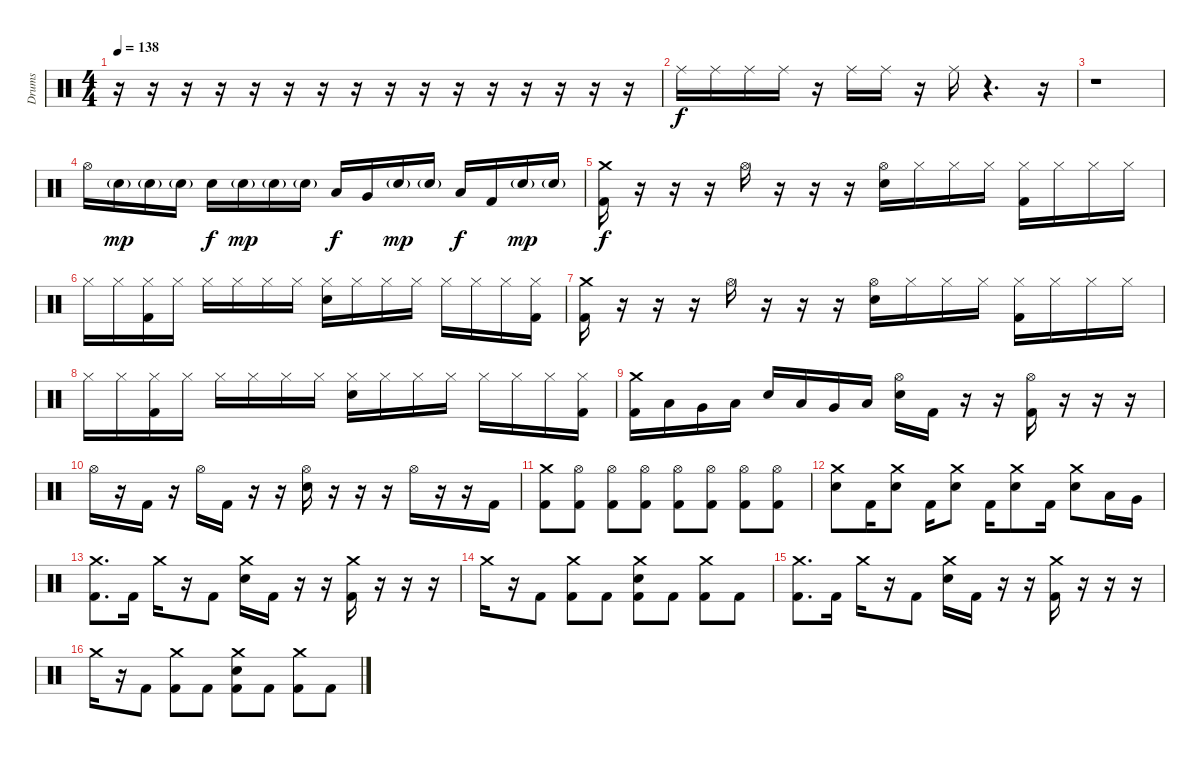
\track ("Drums" "Drums") {instrument percussion}
\staff {score}
\articulation defaults
\ts (4 4)
\tempo 138
\clef neutral
\ks c
r.16{dy f} r.16 r.16 r.16 r.16 r.16 r.16 r.16 r.16 r.16 r.16 r.16 r.16 r.16 r.16 r.16 |
"Ride (middle)".16 "Ride (middle)".16 "Ride (middle)".16 "Ride (middle)".16 r.16 "Ride (middle)".16 "Ride (middle)".16 r.16 "Ride (middle)".16 r.4{d} r.16 |
r.1 |
"Hi-Hat (open)".16 "Snare (hit) 2"{g}.16{dy mp} "Snare (hit) 2"{g}.16 "Snare (hit) 2"{g}.16 "Electric Snare (hit)".16{dy f} "Snare (hit) 2"{g}.16{dy mp} "Snare (hit) 2"{g}.16 "Snare (hit) 2"{g}.16 "Low Tom (hit)".16{dy f} "Very Low Tom (hit)".16 "Snare (hit) 2"{g}.16{dy mp} "Snare (hit) 2"{g}.16 "Low Floor Tom (hit)".16{dy f} "Kick (hit) 2".16 "Snare (hit) 2"{g}.16{dy mp} "Snare (hit) 2"{g}.16 |
("Crash medium (hit)" "Kick (hit) 2").16{dy f} r.16 r.16 r.16 "Hi-Hat (open)".16 r.16 r.16 r.16 ("Hi-Hat (open)" "Electric Snare (hit)").16 "Hi-Hat (closed)".16 "Hi-Hat (closed)".16 "Hi-Hat (closed)".16 ("Hi-Hat (closed)" "Kick (hit) 2").16 "Hi-Hat (closed)".16 "Hi-Hat (closed)".16 "Hi-Hat (closed)".16 |
"Hi-Hat (closed)".16 "Hi-Hat (closed)".16 ("Hi-Hat (closed)" "Kick (hit) 2").16 "Hi-Hat (closed)".16 "Hi-Hat (closed)".16 "Hi-Hat (closed)".16 "Hi-Hat (closed)".16 "Hi-Hat (closed)".16 ("Hi-Hat (closed)" "Electric Snare (hit)").16 "Hi-Hat (closed)".16 "Hi-Hat (closed)".16 "Hi-Hat (closed)".16 "Hi-Hat (closed)".16 "Hi-Hat (closed)".16 "Hi-Hat (closed)".16 ("Hi-Hat (closed)" "Kick (hit) 2").16 |
("Crash medium (hit)" "Kick (hit) 2").16 r.16 r.16 r.16 "Hi-Hat (open)".16 r.16 r.16 r.16 ("Hi-Hat (open)" "Electric Snare (hit)").16 "Hi-Hat (closed)".16 "Hi-Hat (closed)".16 "Hi-Hat (closed)".16 ("Hi-Hat (closed)" "Kick (hit) 2").16 "Hi-Hat (closed)".16 "Hi-Hat (closed)".16 "Hi-Hat (closed)".16 |
"Hi-Hat (closed)".16 "Hi-Hat (closed)".16 ("Hi-Hat (closed)" "Kick (hit) 2").16 "Hi-Hat (closed)".16 "Hi-Hat (closed)".16 "Hi-Hat (closed)".16 "Hi-Hat (closed)".16 "Hi-Hat (closed)".16 ("Hi-Hat (closed)" "Electric Snare (hit)").16 "Hi-Hat (closed)".16 "Hi-Hat (closed)".16 "Hi-Hat (closed)".16 "Hi-Hat (closed)".16 "Hi-Hat (closed)".16 "Hi-Hat (closed)".16 ("Hi-Hat (closed)" "Kick (hit) 2").16 |
("Crash medium (hit)" "Kick (hit) 2").16 "Low Tom (hit)".16 "Very Low Tom (hit)".16 "Low Floor Tom (hit)".16 "Electric Snare (hit)".16 "Low Tom (hit)".16 "Very Low Tom (hit)".16 "Low Floor Tom (hit)".16 ("Hi-Hat (open)" "Electric Snare (hit)").16 "Kick (hit) 2".16 r.16 r.16 ("Hi-Hat (open)" "Kick (hit) 2").16 r.16 r.16 r.16 |
"Hi-Hat (open)".16 r.16 "Kick (hit) 2".16 r.16 "Hi-Hat (open)".16 "Kick (hit) 2".16 r.16 r.16 ("Hi-Hat (open)" "Electric Snare (hit)").16 r.16 r.16 r.16 "Hi-Hat (open)".16 r.16 r.16 "Kick (hit) 2".16 |
("Crash medium (hit)" "Kick (hit) 2").8 ("Hi-Hat (open)" "Kick (hit) 2").8 ("Hi-Hat (open)" "Kick (hit) 2").8 ("Hi-Hat (open)" "Kick (hit) 2").8 ("Hi-Hat (open)" "Kick (hit) 2").8 ("Hi-Hat (open)" "Kick (hit) 2").8 ("Hi-Hat (open)" "Kick (hit) 2").8 ("Hi-Hat (open)" "Kick (hit) 2").8 |
("Crash medium (hit)" "Electric Snare (hit)").8 "Kick (hit) 2".16 ("Crash medium (hit)" "Electric Snare (hit)").8 "Kick (hit) 2".16 ("Crash medium (hit)" "Electric Snare (hit)").8 "Kick (hit) 2".16 ("Crash medium (hit)" "Electric Snare (hit)").8 "Kick (hit) 2".16 ("Crash medium (hit)" "Electric Snare (hit)").8 "Low Tom (hit)".16 "Very Low Tom (hit)".16 |
("Crash medium (hit)" "Kick (hit) 2").8{d} "Kick (hit) 2".16 "Crash medium (hit)".16 r.16 "Kick (hit) 2".8 ("Crash medium (hit)" "Electric Snare (hit)").16 "Kick (hit) 2".16 r.16 r.16 ("Crash medium (hit)" "Kick (hit) 2").16 r.16 r.16 r.16 |
"Crash medium (hit)".16 r.16 "Kick (hit) 2".8 ("Crash medium (hit)" "Kick (hit) 2").8 "Kick (hit) 2".8 ("Crash medium (hit)" "Electric Snare (hit)" "Kick (hit) 2").8 "Kick (hit) 2".8 ("Crash medium (hit)" "Kick (hit) 2").8 "Kick (hit) 2".8 |
("Crash medium (hit)" "Kick (hit) 2").8{d} "Kick (hit) 2".16 "Crash medium (hit)".16 r.16 "Kick (hit) 2".8 ("Crash medium (hit)" "Electric Snare (hit)").16 "Kick (hit) 2".16 r.16 r.16 ("Crash medium (hit)" "Kick (hit) 2").16 r.16 r.16 r.16 |
"Crash medium (hit)".16 r.16 "Kick (hit) 2".8 ("Crash medium (hit)" "Kick (hit) 2").8 "Kick (hit) 2".8 ("Crash medium (hit)" "Electric Snare (hit)" "Kick (hit) 2").8 "Kick (hit) 2".8 ("Crash medium (hit)" "Kick (hit) 2").8 "Kick (hit) 2".8
